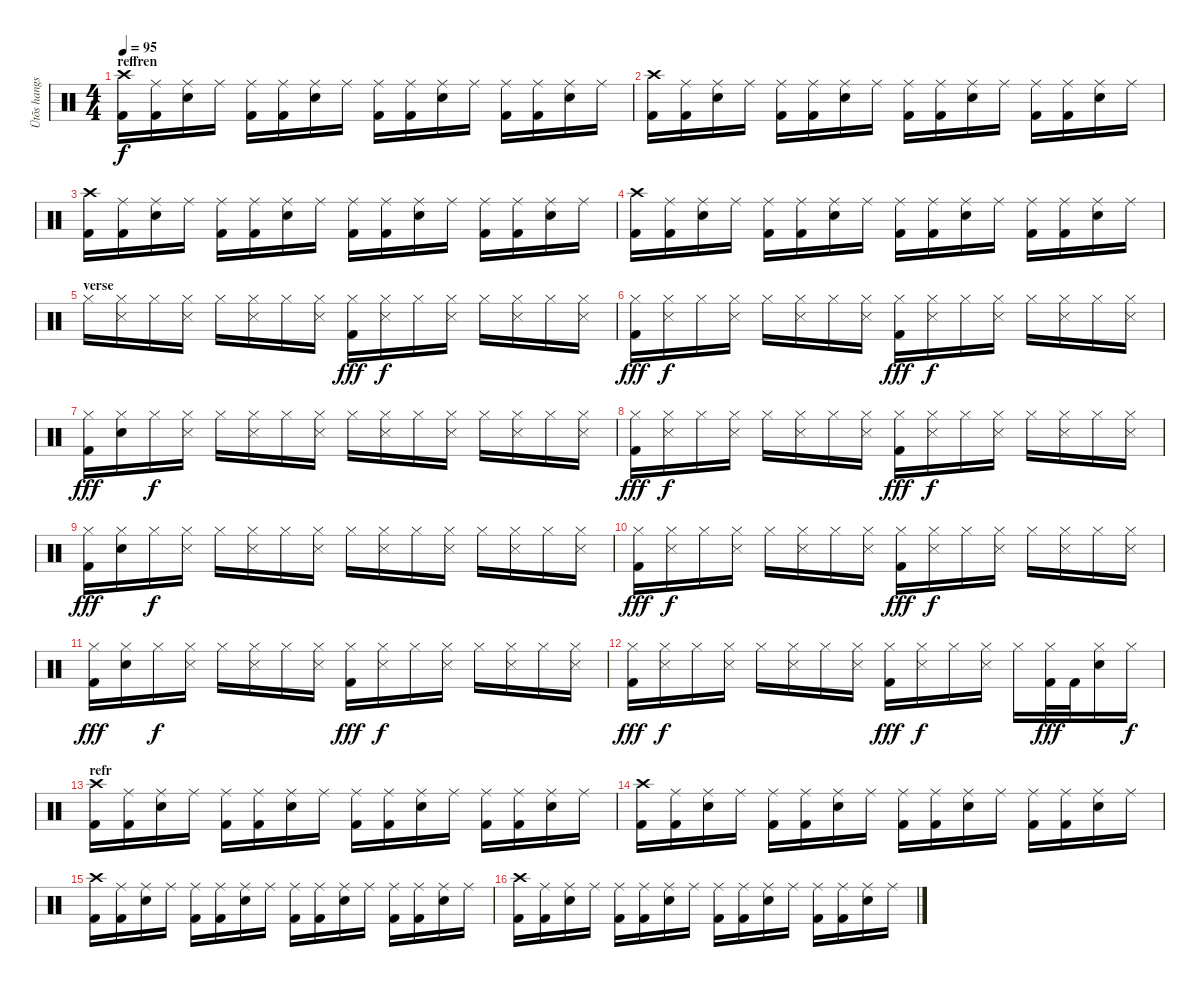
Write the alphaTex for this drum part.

\track ("Ütõs hangszer" "Ütõs hangs") {instrument percussion}
\staff {score}
\articulation defaults
\ts (4 4)
\section ("" "reffren")
\tempo 95
\clef neutral
\ks c
("Crash high (hit)" "Kick (hit) 2").16{dy f} ("Ride (middle)" "Kick (hit) 2").16 ("Ride (middle)" "Snare (hit) 2").16 "Ride (middle)".16 ("Ride (middle)" "Kick (hit) 2").16 ("Ride (middle)" "Kick (hit) 2").16 ("Ride (middle)" "Snare (hit) 2").16 "Ride (middle)".16 ("Ride (middle)" "Kick (hit) 2").16 ("Ride (middle)" "Kick (hit) 2").16 ("Ride (middle)" "Snare (hit) 2").16 "Ride (middle)".16 ("Ride (middle)" "Kick (hit) 2").16 ("Ride (middle)" "Kick (hit) 2").16 ("Ride (middle)" "Snare (hit) 2").16 "Ride (middle)".16 |
("Crash high (hit)" "Kick (hit) 2").16 ("Ride (middle)" "Kick (hit) 2").16 ("Ride (middle)" "Snare (hit) 2").16 "Ride (middle)".16 ("Ride (middle)" "Kick (hit) 2").16 ("Ride (middle)" "Kick (hit) 2").16 ("Ride (middle)" "Snare (hit) 2").16 "Ride (middle)".16 ("Ride (middle)" "Kick (hit) 2").16 ("Ride (middle)" "Kick (hit) 2").16 ("Ride (middle)" "Snare (hit) 2").16 "Ride (middle)".16 ("Ride (middle)" "Kick (hit) 2").16 ("Ride (middle)" "Kick (hit) 2").16 ("Ride (middle)" "Snare (hit) 2").16 "Ride (middle)".16 |
("Crash high (hit)" "Kick (hit) 2").16 ("Ride (middle)" "Kick (hit) 2").16 ("Ride (middle)" "Snare (hit) 2").16 "Ride (middle)".16 ("Ride (middle)" "Kick (hit) 2").16 ("Ride (middle)" "Kick (hit) 2").16 ("Ride (middle)" "Snare (hit) 2").16 "Ride (middle)".16 ("Ride (middle)" "Kick (hit) 2").16 ("Ride (middle)" "Kick (hit) 2").16 ("Ride (middle)" "Snare (hit) 2").16 "Ride (middle)".16 ("Ride (middle)" "Kick (hit) 2").16 ("Ride (middle)" "Kick (hit) 2").16 ("Ride (middle)" "Snare (hit) 2").16 "Ride (middle)".16 |
("Crash high (hit)" "Kick (hit) 2").16 ("Ride (middle)" "Kick (hit) 2").16 ("Ride (middle)" "Snare (hit) 2").16 "Ride (middle)".16 ("Ride (middle)" "Kick (hit) 2").16 ("Ride (middle)" "Kick (hit) 2").16 ("Ride (middle)" "Snare (hit) 2").16 "Ride (middle)".16 ("Ride (middle)" "Kick (hit) 2").16 ("Ride (middle)" "Kick (hit) 2").16 ("Ride (middle)" "Snare (hit) 2").16 "Ride (middle)".16 ("Ride (middle)" "Kick (hit) 2").16 ("Ride (middle)" "Kick (hit) 2").16 ("Ride (middle)" "Snare (hit) 2").16 "Ride (middle)".16 |
\section ("" "verse")
"Hi-Hat (closed)".16 ("Hi-Hat (closed)" "Snare (side stick) 3").16 "Hi-Hat (closed)".16 ("Hi-Hat (closed)" "Snare (side stick) 3").16 "Hi-Hat (closed)".16 ("Hi-Hat (closed)" "Snare (side stick) 3").16 "Hi-Hat (closed)".16 ("Hi-Hat (closed)" "Snare (side stick) 3").16 ("Hi-Hat (closed)" "Kick (hit) 2").16{dy fff} ("Hi-Hat (closed)" "Snare (side stick) 3").16{dy f} "Hi-Hat (closed)".16 ("Hi-Hat (closed)" "Snare (side stick) 3").16 "Hi-Hat (closed)".16 ("Hi-Hat (closed)" "Snare (side stick) 3").16 "Hi-Hat (closed)".16 ("Hi-Hat (closed)" "Snare (side stick) 3").16 |
("Hi-Hat (closed)" "Kick (hit) 2").16{dy fff} ("Hi-Hat (closed)" "Snare (side stick) 3").16{dy f} "Hi-Hat (closed)".16 ("Hi-Hat (closed)" "Snare (side stick) 3").16 "Hi-Hat (closed)".16 ("Hi-Hat (closed)" "Snare (side stick) 3").16 "Hi-Hat (closed)".16 ("Hi-Hat (closed)" "Snare (side stick) 3").16 ("Hi-Hat (closed)" "Kick (hit) 2").16{dy fff} ("Hi-Hat (closed)" "Snare (side stick) 3").16{dy f} "Hi-Hat (closed)".16 ("Hi-Hat (closed)" "Snare (side stick) 3").16 "Hi-Hat (closed)".16 ("Hi-Hat (closed)" "Snare (side stick) 3").16 "Hi-Hat (closed)".16 ("Hi-Hat (closed)" "Snare (side stick) 3").16 |
("Hi-Hat (closed)" "Kick (hit) 2").16{dy fff} ("Hi-Hat (closed)" "Snare (hit) 2").16 "Hi-Hat (closed)".16{dy f} ("Hi-Hat (closed)" "Snare (side stick) 3").16 "Hi-Hat (closed)".16 ("Hi-Hat (closed)" "Snare (side stick) 3").16 "Hi-Hat (closed)".16 ("Hi-Hat (closed)" "Snare (side stick) 3").16 "Hi-Hat (closed)".16 ("Hi-Hat (closed)" "Snare (side stick) 3").16 "Hi-Hat (closed)".16 ("Hi-Hat (closed)" "Snare (side stick) 3").16 "Hi-Hat (closed)".16 ("Hi-Hat (closed)" "Snare (side stick) 3").16 "Hi-Hat (closed)".16 ("Hi-Hat (closed)" "Snare (side stick) 3").16 |
("Hi-Hat (closed)" "Kick (hit) 2").16{dy fff} ("Hi-Hat (closed)" "Snare (side stick) 3").16{dy f} "Hi-Hat (closed)".16 ("Hi-Hat (closed)" "Snare (side stick) 3").16 "Hi-Hat (closed)".16 ("Hi-Hat (closed)" "Snare (side stick) 3").16 "Hi-Hat (closed)".16 ("Hi-Hat (closed)" "Snare (side stick) 3").16 ("Hi-Hat (closed)" "Kick (hit) 2").16{dy fff} ("Hi-Hat (closed)" "Snare (side stick) 3").16{dy f} "Hi-Hat (closed)".16 ("Hi-Hat (closed)" "Snare (side stick) 3").16 "Hi-Hat (closed)".16 ("Hi-Hat (closed)" "Snare (side stick) 3").16 "Hi-Hat (closed)".16 ("Hi-Hat (closed)" "Snare (side stick) 3").16 |
("Hi-Hat (closed)" "Kick (hit) 2").16{dy fff} ("Hi-Hat (closed)" "Snare (hit) 2").16 "Hi-Hat (closed)".16{dy f} ("Hi-Hat (closed)" "Snare (side stick) 3").16 "Hi-Hat (closed)".16 ("Hi-Hat (closed)" "Snare (side stick) 3").16 "Hi-Hat (closed)".16 ("Hi-Hat (closed)" "Snare (side stick) 3").16 "Hi-Hat (closed)".16 ("Hi-Hat (closed)" "Snare (side stick) 3").16 "Hi-Hat (closed)".16 ("Hi-Hat (closed)" "Snare (side stick) 3").16 "Hi-Hat (closed)".16 ("Hi-Hat (closed)" "Snare (side stick) 3").16 "Hi-Hat (closed)".16 ("Hi-Hat (closed)" "Snare (side stick) 3").16 |
("Hi-Hat (closed)" "Kick (hit) 2").16{dy fff} ("Hi-Hat (closed)" "Snare (side stick) 3").16{dy f} "Hi-Hat (closed)".16 ("Hi-Hat (closed)" "Snare (side stick) 3").16 "Hi-Hat (closed)".16 ("Hi-Hat (closed)" "Snare (side stick) 3").16 "Hi-Hat (closed)".16 ("Hi-Hat (closed)" "Snare (side stick) 3").16 ("Hi-Hat (closed)" "Kick (hit) 2").16{dy fff} ("Hi-Hat (closed)" "Snare (side stick) 3").16{dy f} "Hi-Hat (closed)".16 ("Hi-Hat (closed)" "Snare (side stick) 3").16 "Hi-Hat (closed)".16 ("Hi-Hat (closed)" "Snare (side stick) 3").16 "Hi-Hat (closed)".16 ("Hi-Hat (closed)" "Snare (side stick) 3").16 |
("Hi-Hat (closed)" "Kick (hit) 2").16{dy fff} ("Hi-Hat (closed)" "Snare (hit) 2").16 "Hi-Hat (closed)".16{dy f} ("Hi-Hat (closed)" "Snare (side stick) 3").16 "Hi-Hat (closed)".16 ("Hi-Hat (closed)" "Snare (side stick) 3").16 "Hi-Hat (closed)".16 ("Hi-Hat (closed)" "Snare (side stick) 3").16 ("Hi-Hat (closed)" "Kick (hit) 2").16{dy fff} ("Hi-Hat (closed)" "Snare (side stick) 3").16{dy f} "Hi-Hat (closed)".16 ("Hi-Hat (closed)" "Snare (side stick) 3").16 "Hi-Hat (closed)".16 ("Hi-Hat (closed)" "Snare (side stick) 3").16 "Hi-Hat (closed)".16 ("Hi-Hat (closed)" "Snare (side stick) 3").16 |
("Hi-Hat (closed)" "Kick (hit) 2").16{dy fff} ("Hi-Hat (closed)" "Snare (side stick) 3").16{dy f} "Hi-Hat (closed)".16 ("Hi-Hat (closed)" "Snare (side stick) 3").16 "Hi-Hat (closed)".16 ("Hi-Hat (closed)" "Snare (side stick) 3").16 "Hi-Hat (closed)".16 ("Hi-Hat (closed)" "Snare (side stick) 3").16 ("Hi-Hat (closed)" "Kick (hit) 2").16{dy fff} ("Hi-Hat (closed)" "Snare (side stick) 3").16{dy f} "Hi-Hat (closed)".16 ("Hi-Hat (closed)" "Snare (side stick) 3").16 "Hi-Hat (closed)".16 ("Hi-Hat (closed)" "Kick (hit) 2").32{dy fff} "Kick (hit) 2".32 ("Hi-Hat (closed)" "Snare (hit) 2").16 "Hi-Hat (closed)".16{dy f} |
\section ("" "refr")
("Crash high (hit)" "Kick (hit) 2").16 ("Ride (middle)" "Kick (hit) 2").16 ("Ride (middle)" "Snare (hit) 2").16 "Ride (middle)".16 ("Ride (middle)" "Kick (hit) 2").16 ("Ride (middle)" "Kick (hit) 2").16 ("Ride (middle)" "Snare (hit) 2").16 "Ride (middle)".16 ("Ride (middle)" "Kick (hit) 2").16 ("Ride (middle)" "Kick (hit) 2").16 ("Ride (middle)" "Snare (hit) 2").16 "Ride (middle)".16 ("Ride (middle)" "Kick (hit) 2").16 ("Ride (middle)" "Kick (hit) 2").16 ("Ride (middle)" "Snare (hit) 2").16 "Ride (middle)".16 |
("Crash high (hit)" "Kick (hit) 2").16 ("Ride (middle)" "Kick (hit) 2").16 ("Ride (middle)" "Snare (hit) 2").16 "Ride (middle)".16 ("Ride (middle)" "Kick (hit) 2").16 ("Ride (middle)" "Kick (hit) 2").16 ("Ride (middle)" "Snare (hit) 2").16 "Ride (middle)".16 ("Ride (middle)" "Kick (hit) 2").16 ("Ride (middle)" "Kick (hit) 2").16 ("Ride (middle)" "Snare (hit) 2").16 "Ride (middle)".16 ("Ride (middle)" "Kick (hit) 2").16 ("Ride (middle)" "Kick (hit) 2").16 ("Ride (middle)" "Snare (hit) 2").16 "Ride (middle)".16 |
("Crash high (hit)" "Kick (hit) 2").16 ("Ride (middle)" "Kick (hit) 2").16 ("Ride (middle)" "Snare (hit) 2").16 "Ride (middle)".16 ("Ride (middle)" "Kick (hit) 2").16 ("Ride (middle)" "Kick (hit) 2").16 ("Ride (middle)" "Snare (hit) 2").16 "Ride (middle)".16 ("Ride (middle)" "Kick (hit) 2").16 ("Ride (middle)" "Kick (hit) 2").16 ("Ride (middle)" "Snare (hit) 2").16 "Ride (middle)".16 ("Ride (middle)" "Kick (hit) 2").16 ("Ride (middle)" "Kick (hit) 2").16 ("Ride (middle)" "Snare (hit) 2").16 "Ride (middle)".16 |
("Crash high (hit)" "Kick (hit) 2").16 ("Ride (middle)" "Kick (hit) 2").16 ("Ride (middle)" "Snare (hit) 2").16 "Ride (middle)".16 ("Ride (middle)" "Kick (hit) 2").16 ("Ride (middle)" "Kick (hit) 2").16 ("Ride (middle)" "Snare (hit) 2").16 "Ride (middle)".16 ("Ride (middle)" "Kick (hit) 2").16 ("Ride (middle)" "Kick (hit) 2").16 ("Ride (middle)" "Snare (hit) 2").16 "Ride (middle)".16 ("Ride (middle)" "Kick (hit) 2").16 ("Ride (middle)" "Kick (hit) 2").16 ("Ride (middle)" "Snare (hit) 2").16 "Ride (middle)".16
